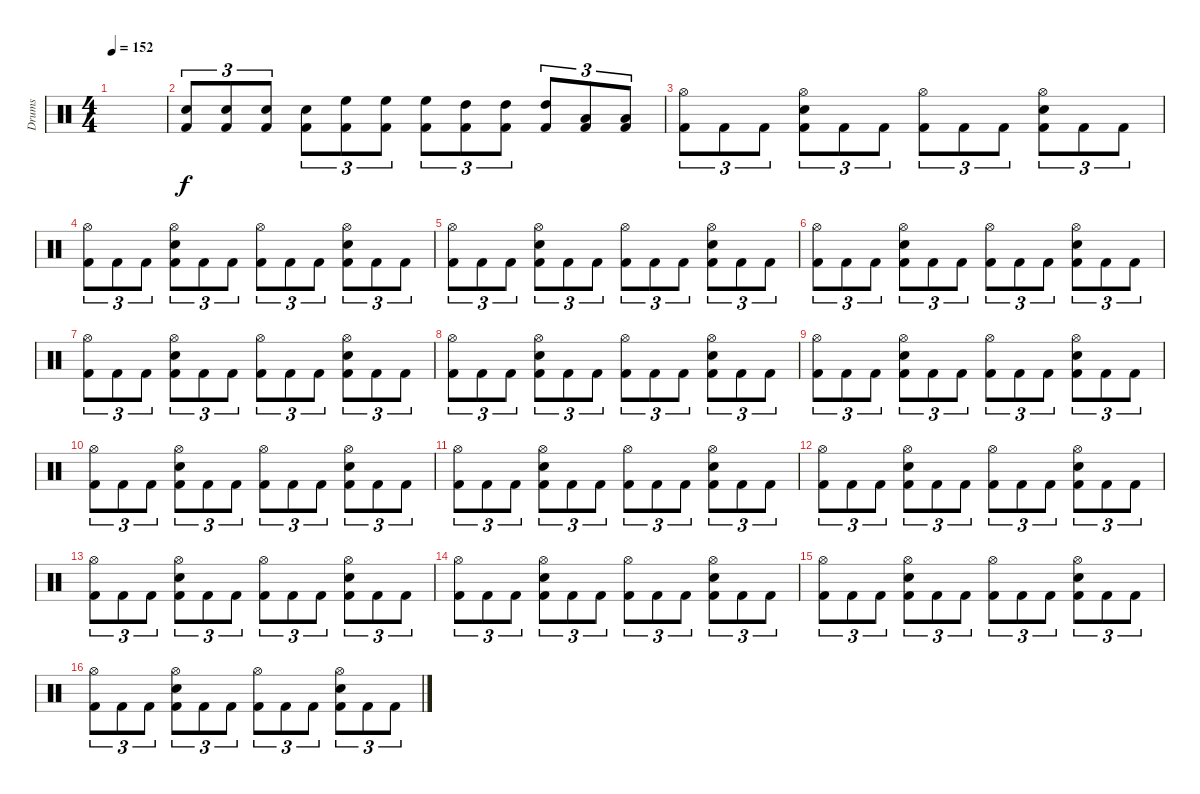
\track ("Drums" "Drums") {instrument percussion}
\staff {score}
\articulation defaults
\ts (4 4)
\tempo 152
\clef neutral
\ks c
|
("Snare (hit) 2" "Kick (hit) 2").8{tu (3 2)} ("Snare (hit) 2" "Kick (hit) 2").8{tu (3 2)} ("Snare (hit) 2" "Kick (hit) 2").8{tu (3 2)} ("Snare (hit) 2" "Kick (hit) 2").8{tu (3 2)} ("High Floor Tom (hit)" "Kick (hit) 2").8{tu (3 2)} ("High Floor Tom (hit)" "Kick (hit) 2").8{tu (3 2)} ("High Floor Tom (hit)" "Kick (hit) 2").8{tu (3 2)} ("High Tom (hit)" "Kick (hit) 2").8{tu (3 2)} ("High Tom (hit)" "Kick (hit) 2").8{tu (3 2)} ("High Tom (hit)" "Kick (hit) 2").8{tu (3 2)} ("Low Tom (hit)" "Kick (hit) 2").8{tu (3 2)} ("Low Tom (hit)" "Kick (hit) 2").8{tu (3 2)} |
("Hi-Hat (open)" "Kick (hit) 2").8{tu (3 2)} "Kick (hit) 2".8{tu (3 2)} "Kick (hit) 2".8{tu (3 2)} ("Hi-Hat (open)" "Snare (hit) 2" "Kick (hit) 2").8{tu (3 2)} "Kick (hit) 2".8{tu (3 2)} "Kick (hit) 2".8{tu (3 2)} ("Hi-Hat (open)" "Kick (hit) 2").8{tu (3 2)} "Kick (hit) 2".8{tu (3 2)} "Kick (hit) 2".8{tu (3 2)} ("Hi-Hat (open)" "Snare (hit) 2" "Kick (hit) 2").8{tu (3 2)} "Kick (hit) 2".8{tu (3 2)} "Kick (hit) 2".8{tu (3 2)} |
("Hi-Hat (open)" "Kick (hit) 2").8{tu (3 2)} "Kick (hit) 2".8{tu (3 2)} "Kick (hit) 2".8{tu (3 2)} ("Hi-Hat (open)" "Snare (hit) 2" "Kick (hit) 2").8{tu (3 2)} "Kick (hit) 2".8{tu (3 2)} "Kick (hit) 2".8{tu (3 2)} ("Hi-Hat (open)" "Kick (hit) 2").8{tu (3 2)} "Kick (hit) 2".8{tu (3 2)} "Kick (hit) 2".8{tu (3 2)} ("Hi-Hat (open)" "Snare (hit) 2" "Kick (hit) 2").8{tu (3 2)} "Kick (hit) 2".8{tu (3 2)} "Kick (hit) 2".8{tu (3 2)} |
("Hi-Hat (open)" "Kick (hit) 2").8{tu (3 2)} "Kick (hit) 2".8{tu (3 2)} "Kick (hit) 2".8{tu (3 2)} ("Hi-Hat (open)" "Snare (hit) 2" "Kick (hit) 2").8{tu (3 2)} "Kick (hit) 2".8{tu (3 2)} "Kick (hit) 2".8{tu (3 2)} ("Hi-Hat (open)" "Kick (hit) 2").8{tu (3 2)} "Kick (hit) 2".8{tu (3 2)} "Kick (hit) 2".8{tu (3 2)} ("Hi-Hat (open)" "Snare (hit) 2" "Kick (hit) 2").8{tu (3 2)} "Kick (hit) 2".8{tu (3 2)} "Kick (hit) 2".8{tu (3 2)} |
("Hi-Hat (open)" "Kick (hit) 2").8{tu (3 2)} "Kick (hit) 2".8{tu (3 2)} "Kick (hit) 2".8{tu (3 2)} ("Hi-Hat (open)" "Snare (hit) 2" "Kick (hit) 2").8{tu (3 2)} "Kick (hit) 2".8{tu (3 2)} "Kick (hit) 2".8{tu (3 2)} ("Hi-Hat (open)" "Kick (hit) 2").8{tu (3 2)} "Kick (hit) 2".8{tu (3 2)} "Kick (hit) 2".8{tu (3 2)} ("Hi-Hat (open)" "Snare (hit) 2" "Kick (hit) 2").8{tu (3 2)} "Kick (hit) 2".8{tu (3 2)} "Kick (hit) 2".8{tu (3 2)} |
("Hi-Hat (open)" "Kick (hit) 2").8{tu (3 2)} "Kick (hit) 2".8{tu (3 2)} "Kick (hit) 2".8{tu (3 2)} ("Hi-Hat (open)" "Snare (hit) 2" "Kick (hit) 2").8{tu (3 2)} "Kick (hit) 2".8{tu (3 2)} "Kick (hit) 2".8{tu (3 2)} ("Hi-Hat (open)" "Kick (hit) 2").8{tu (3 2)} "Kick (hit) 2".8{tu (3 2)} "Kick (hit) 2".8{tu (3 2)} ("Hi-Hat (open)" "Snare (hit) 2" "Kick (hit) 2").8{tu (3 2)} "Kick (hit) 2".8{tu (3 2)} "Kick (hit) 2".8{tu (3 2)} |
("Hi-Hat (open)" "Kick (hit) 2").8{tu (3 2)} "Kick (hit) 2".8{tu (3 2)} "Kick (hit) 2".8{tu (3 2)} ("Hi-Hat (open)" "Snare (hit) 2" "Kick (hit) 2").8{tu (3 2)} "Kick (hit) 2".8{tu (3 2)} "Kick (hit) 2".8{tu (3 2)} ("Hi-Hat (open)" "Kick (hit) 2").8{tu (3 2)} "Kick (hit) 2".8{tu (3 2)} "Kick (hit) 2".8{tu (3 2)} ("Hi-Hat (open)" "Snare (hit) 2" "Kick (hit) 2").8{tu (3 2)} "Kick (hit) 2".8{tu (3 2)} "Kick (hit) 2".8{tu (3 2)} |
("Hi-Hat (open)" "Kick (hit) 2").8{tu (3 2)} "Kick (hit) 2".8{tu (3 2)} "Kick (hit) 2".8{tu (3 2)} ("Hi-Hat (open)" "Snare (hit) 2" "Kick (hit) 2").8{tu (3 2)} "Kick (hit) 2".8{tu (3 2)} "Kick (hit) 2".8{tu (3 2)} ("Hi-Hat (open)" "Kick (hit) 2").8{tu (3 2)} "Kick (hit) 2".8{tu (3 2)} "Kick (hit) 2".8{tu (3 2)} ("Hi-Hat (open)" "Snare (hit) 2" "Kick (hit) 2").8{tu (3 2)} "Kick (hit) 2".8{tu (3 2)} "Kick (hit) 2".8{tu (3 2)} |
("Hi-Hat (open)" "Kick (hit) 2").8{tu (3 2)} "Kick (hit) 2".8{tu (3 2)} "Kick (hit) 2".8{tu (3 2)} ("Hi-Hat (open)" "Snare (hit) 2" "Kick (hit) 2").8{tu (3 2)} "Kick (hit) 2".8{tu (3 2)} "Kick (hit) 2".8{tu (3 2)} ("Hi-Hat (open)" "Kick (hit) 2").8{tu (3 2)} "Kick (hit) 2".8{tu (3 2)} "Kick (hit) 2".8{tu (3 2)} ("Hi-Hat (open)" "Snare (hit) 2" "Kick (hit) 2").8{tu (3 2)} "Kick (hit) 2".8{tu (3 2)} "Kick (hit) 2".8{tu (3 2)} |
("Hi-Hat (open)" "Kick (hit) 2").8{tu (3 2)} "Kick (hit) 2".8{tu (3 2)} "Kick (hit) 2".8{tu (3 2)} ("Hi-Hat (open)" "Snare (hit) 2" "Kick (hit) 2").8{tu (3 2)} "Kick (hit) 2".8{tu (3 2)} "Kick (hit) 2".8{tu (3 2)} ("Hi-Hat (open)" "Kick (hit) 2").8{tu (3 2)} "Kick (hit) 2".8{tu (3 2)} "Kick (hit) 2".8{tu (3 2)} ("Hi-Hat (open)" "Snare (hit) 2" "Kick (hit) 2").8{tu (3 2)} "Kick (hit) 2".8{tu (3 2)} "Kick (hit) 2".8{tu (3 2)} |
("Hi-Hat (open)" "Kick (hit) 2").8{tu (3 2)} "Kick (hit) 2".8{tu (3 2)} "Kick (hit) 2".8{tu (3 2)} ("Hi-Hat (open)" "Snare (hit) 2" "Kick (hit) 2").8{tu (3 2)} "Kick (hit) 2".8{tu (3 2)} "Kick (hit) 2".8{tu (3 2)} ("Hi-Hat (open)" "Kick (hit) 2").8{tu (3 2)} "Kick (hit) 2".8{tu (3 2)} "Kick (hit) 2".8{tu (3 2)} ("Hi-Hat (open)" "Snare (hit) 2" "Kick (hit) 2").8{tu (3 2)} "Kick (hit) 2".8{tu (3 2)} "Kick (hit) 2".8{tu (3 2)} |
("Hi-Hat (open)" "Kick (hit) 2").8{tu (3 2)} "Kick (hit) 2".8{tu (3 2)} "Kick (hit) 2".8{tu (3 2)} ("Hi-Hat (open)" "Snare (hit) 2" "Kick (hit) 2").8{tu (3 2)} "Kick (hit) 2".8{tu (3 2)} "Kick (hit) 2".8{tu (3 2)} ("Hi-Hat (open)" "Kick (hit) 2").8{tu (3 2)} "Kick (hit) 2".8{tu (3 2)} "Kick (hit) 2".8{tu (3 2)} ("Hi-Hat (open)" "Snare (hit) 2" "Kick (hit) 2").8{tu (3 2)} "Kick (hit) 2".8{tu (3 2)} "Kick (hit) 2".8{tu (3 2)} |
("Hi-Hat (open)" "Kick (hit) 2").8{tu (3 2)} "Kick (hit) 2".8{tu (3 2)} "Kick (hit) 2".8{tu (3 2)} ("Hi-Hat (open)" "Snare (hit) 2" "Kick (hit) 2").8{tu (3 2)} "Kick (hit) 2".8{tu (3 2)} "Kick (hit) 2".8{tu (3 2)} ("Hi-Hat (open)" "Kick (hit) 2").8{tu (3 2)} "Kick (hit) 2".8{tu (3 2)} "Kick (hit) 2".8{tu (3 2)} ("Hi-Hat (open)" "Snare (hit) 2" "Kick (hit) 2").8{tu (3 2)} "Kick (hit) 2".8{tu (3 2)} "Kick (hit) 2".8{tu (3 2)} |
("Hi-Hat (open)" "Kick (hit) 2").8{tu (3 2)} "Kick (hit) 2".8{tu (3 2)} "Kick (hit) 2".8{tu (3 2)} ("Hi-Hat (open)" "Snare (hit) 2" "Kick (hit) 2").8{tu (3 2)} "Kick (hit) 2".8{tu (3 2)} "Kick (hit) 2".8{tu (3 2)} ("Hi-Hat (open)" "Kick (hit) 2").8{tu (3 2)} "Kick (hit) 2".8{tu (3 2)} "Kick (hit) 2".8{tu (3 2)} ("Hi-Hat (open)" "Snare (hit) 2" "Kick (hit) 2").8{tu (3 2)} "Kick (hit) 2".8{tu (3 2)} "Kick (hit) 2".8{tu (3 2)} |
("Hi-Hat (open)" "Kick (hit) 2").8{tu (3 2)} "Kick (hit) 2".8{tu (3 2)} "Kick (hit) 2".8{tu (3 2)} ("Hi-Hat (open)" "Snare (hit) 2" "Kick (hit) 2").8{tu (3 2)} "Kick (hit) 2".8{tu (3 2)} "Kick (hit) 2".8{tu (3 2)} ("Hi-Hat (open)" "Kick (hit) 2").8{tu (3 2)} "Kick (hit) 2".8{tu (3 2)} "Kick (hit) 2".8{tu (3 2)} ("Hi-Hat (open)" "Snare (hit) 2" "Kick (hit) 2").8{tu (3 2)} "Kick (hit) 2".8{tu (3 2)} "Kick (hit) 2".8{tu (3 2)}
